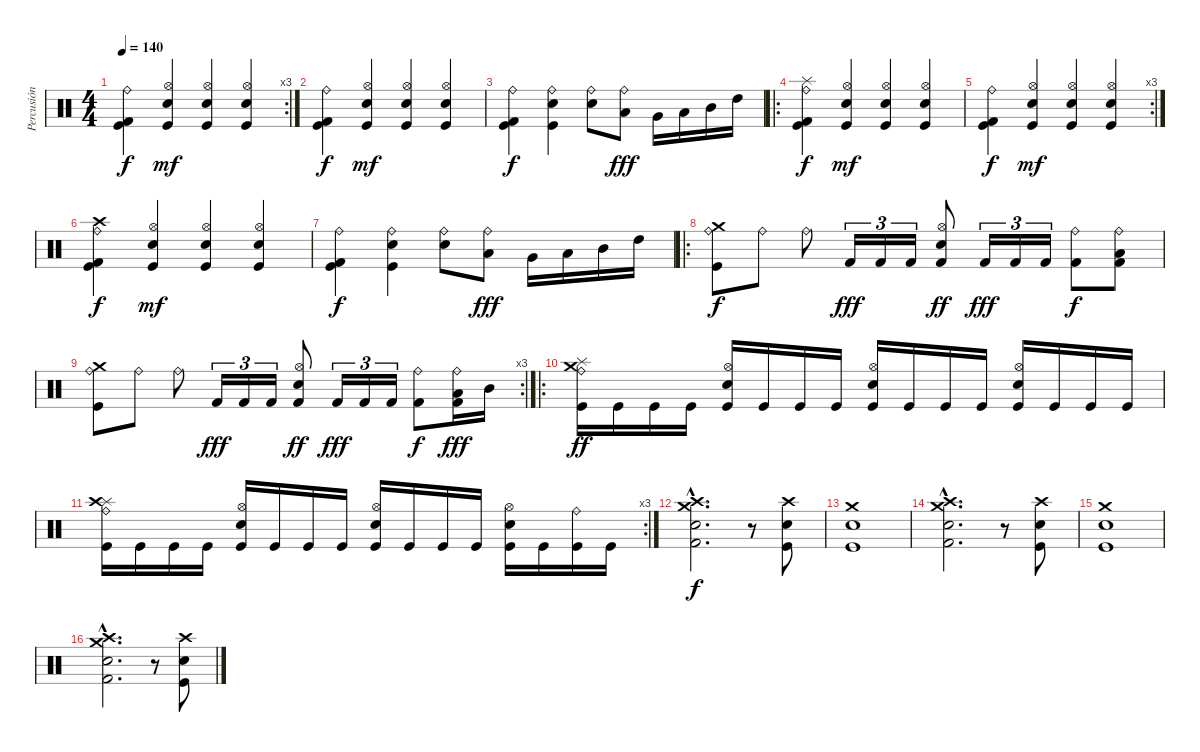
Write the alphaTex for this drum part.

\track ("Percusión" "Percusión") {instrument percussion}
\staff {score}
\articulation defaults
\rc 3
\ts (4 4)
\tempo 140
\clef neutral
\ks c
("Ride (bell)" "Kick (hit) 2" "Kick (hit)").4{dy f} ("Hi-Hat (open)" "Electric Snare (hit)" "Kick (hit)").4{dy mf} ("Hi-Hat (open)" "Electric Snare (hit)" "Kick (hit)").4 ("Hi-Hat (open)" "Electric Snare (hit)" "Kick (hit)").4 |
("Ride (bell)" "Kick (hit) 2" "Kick (hit)").4{dy f} ("Hi-Hat (open)" "Electric Snare (hit)" "Kick (hit)").4{dy mf} ("Hi-Hat (open)" "Electric Snare (hit)" "Kick (hit)").4 ("Hi-Hat (open)" "Electric Snare (hit)" "Kick (hit)").4 |
("Ride (bell)" "Kick (hit) 2" "Kick (hit)").4{dy f} ("Ride (bell)" "Electric Snare (hit)" "Kick (hit)").4 ("Ride (bell)" "Electric Snare (hit)").8 ("Ride (bell)" "Low Floor Tom (hit)").8{dy fff} "Very Low Tom (hit)".16 "Low Tom (hit)".16 "Mid Tom (hit)".16 "High Tom (hit)".16 |
\ro
("Splash (hit)" "Ride (bell)" "Kick (hit) 2" "Kick (hit)").4{dy f} ("Hi-Hat (open)" "Electric Snare (hit)" "Kick (hit)").4{dy mf} ("Hi-Hat (open)" "Electric Snare (hit)" "Kick (hit)").4 ("Hi-Hat (open)" "Electric Snare (hit)" "Kick (hit)").4 |
\rc 3
("Ride (bell)" "Kick (hit) 2" "Kick (hit)").4{dy f} ("Hi-Hat (open)" "Electric Snare (hit)" "Kick (hit)").4{dy mf} ("Hi-Hat (open)" "Electric Snare (hit)" "Kick (hit)").4 ("Hi-Hat (open)" "Electric Snare (hit)" "Kick (hit)").4 |
("Crash high (hit)" "Ride (bell)" "Kick (hit) 2" "Kick (hit)").4{dy f} ("Hi-Hat (open)" "Electric Snare (hit)" "Kick (hit)").4{dy mf} ("Hi-Hat (open)" "Electric Snare (hit)" "Kick (hit)").4 ("Hi-Hat (open)" "Electric Snare (hit)" "Kick (hit)").4 |
("Ride (bell)" "Kick (hit) 2" "Kick (hit)").4{dy f} ("Ride (bell)" "Electric Snare (hit)" "Kick (hit)").4 ("Ride (bell)" "Electric Snare (hit)").8 ("Ride (bell)" "Low Floor Tom (hit)").8{dy fff} "Very Low Tom (hit)".16 "Low Tom (hit)".16 "Mid Tom (hit)".16 "High Tom (hit)".16 |
\ro
("Crash medium (hit)" "Ride (bell)" "Kick (hit)").8{dy f} "Ride (bell)".8 "Ride (bell)".8 "Kick (hit) 2".16{tu (3 2) dy fff} "Kick (hit) 2".16{tu (3 2)} "Kick (hit) 2".16{tu (3 2)} ("Hi-Hat (open)" "Electric Snare (hit)" "Kick (hit) 2").8{dy ff} "Kick (hit) 2".16{tu (3 2) dy fff} "Kick (hit) 2".16{tu (3 2)} "Kick (hit) 2".16{tu (3 2)} ("Ride (bell)" "Kick (hit) 2").8{dy f} ("Low Floor Tom (hit)" "Ride (bell)" "Kick (hit) 2").8 |
\rc 3
("Crash medium (hit)" "Ride (bell)" "Kick (hit)").8 "Ride (bell)".8 "Ride (bell)".8 "Kick (hit) 2".16{tu (3 2) dy fff} "Kick (hit) 2".16{tu (3 2)} "Kick (hit) 2".16{tu (3 2)} ("Hi-Hat (open)" "Electric Snare (hit)" "Kick (hit) 2").8{dy ff} "Kick (hit) 2".16{tu (3 2) dy fff} "Kick (hit) 2".16{tu (3 2)} "Kick (hit) 2".16{tu (3 2)} ("Ride (bell)" "Kick (hit) 2").8{dy f} ("Low Floor Tom (hit)" "Ride (bell)" "Kick (hit) 2").16{dy fff} "Mid Tom (hit)".16 |
\ro
("Splash (hit)" "Crash medium (hit)" "Ride (bell)" "Kick (hit)").16{dy ff} "Kick (hit)".16 "Kick (hit)".16 "Kick (hit)".16 ("Hi-Hat (open)" "Electric Snare (hit)" "Kick (hit)").16 "Kick (hit)".16 "Kick (hit)".16 "Kick (hit)".16 ("Hi-Hat (open)" "Electric Snare (hit)" "Kick (hit)").16 "Kick (hit)".16 "Kick (hit)".16 "Kick (hit)".16 ("Hi-Hat (open)" "Electric Snare (hit)" "Kick (hit)").16 "Kick (hit)".16 "Kick (hit)".16 "Kick (hit)".16 |
\rc 3
("Splash (hit)" "Crash high (hit)" "Ride (bell)" "Kick (hit)").16 "Kick (hit)".16 "Kick (hit)".16 "Kick (hit)".16 ("Hi-Hat (open)" "Electric Snare (hit)" "Kick (hit)").16 "Kick (hit)".16 "Kick (hit)".16 "Kick (hit)".16 ("Hi-Hat (open)" "Electric Snare (hit)" "Kick (hit)").16 "Kick (hit)".16 "Kick (hit)".16 "Kick (hit)".16 ("Hi-Hat (open)" "Electric Snare (hit)" "Kick (hit)").16 "Kick (hit)".16 ("Ride (bell)" "Kick (hit)").16 "Kick (hit)".16 |
("Crash high (hit)"{hac} "Crash medium (hit)"{hac} "Kick (hit) 2"{hac} "Electric Snare (hit)"{hac}).2{d dy f} r.8 ("Crash high (hit)" "Kick (hit)" "Electric Snare (hit)").8 |
("Crash medium (hit)" "Kick (hit)" "Electric Snare (hit)").1 |
("Crash high (hit)"{hac} "Crash medium (hit)"{hac} "Kick (hit) 2"{hac} "Electric Snare (hit)"{hac}).2{d} r.8 ("Crash high (hit)" "Kick (hit)" "Electric Snare (hit)").8 |
("Crash medium (hit)" "Kick (hit)" "Electric Snare (hit)").1 |
("Crash high (hit)"{hac} "Crash medium (hit)"{hac} "Kick (hit) 2"{hac} "Electric Snare (hit)"{hac}).2{d} r.8 ("Crash high (hit)" "Kick (hit)" "Electric Snare (hit)").8
